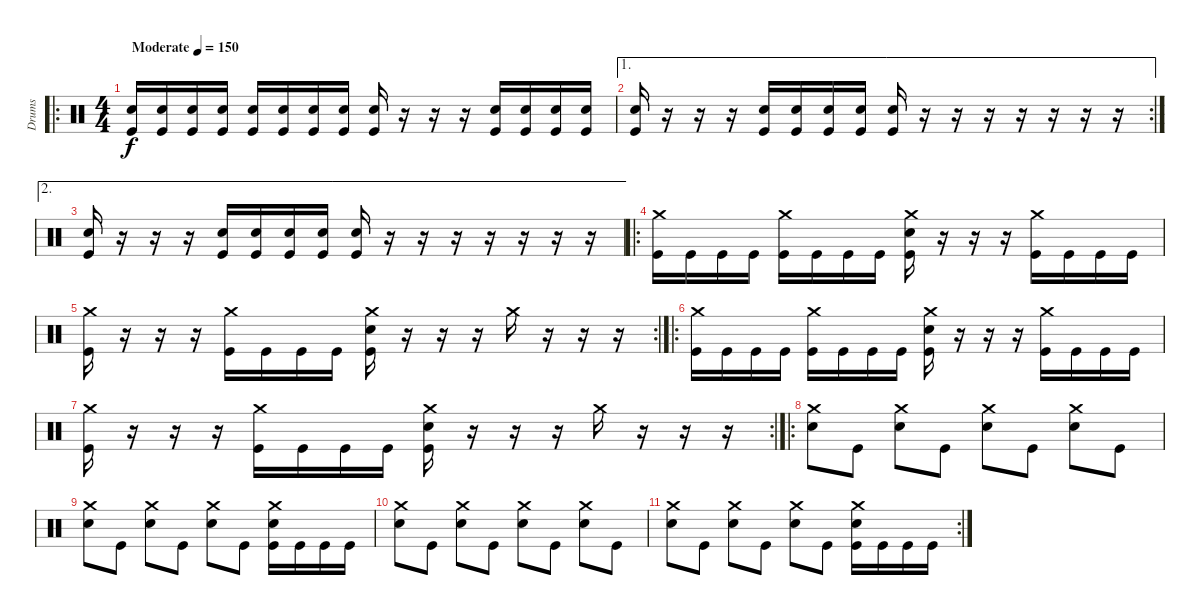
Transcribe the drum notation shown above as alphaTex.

\track ("Drums" "Drums") {instrument percussion}
\staff {score}
\articulation defaults
\ro
\ts (4 4)
\tempo (150 "Moderate")
\clef neutral
\ks c
("Snare (hit) 2" "Kick (hit)").16{dy f} ("Snare (hit) 2" "Kick (hit)").16 ("Snare (hit) 2" "Kick (hit)").16 ("Snare (hit) 2" "Kick (hit)").16 ("Snare (hit) 2" "Kick (hit)").16 ("Snare (hit) 2" "Kick (hit)").16 ("Snare (hit) 2" "Kick (hit)").16 ("Snare (hit) 2" "Kick (hit)").16 ("Snare (hit) 2" "Kick (hit)").16 r.16 r.16 r.16 ("Snare (hit) 2" "Kick (hit)").16 ("Snare (hit) 2" "Kick (hit)").16 ("Snare (hit) 2" "Kick (hit)").16 ("Snare (hit) 2" "Kick (hit)").16 |
\ae 1
\rc 2
("Snare (hit) 2" "Kick (hit)").16 r.16 r.16 r.16 ("Snare (hit) 2" "Kick (hit)").16 ("Snare (hit) 2" "Kick (hit)").16 ("Snare (hit) 2" "Kick (hit)").16 ("Snare (hit) 2" "Kick (hit)").16 ("Snare (hit) 2" "Kick (hit)").16 r.16 r.16 r.16 r.16 r.16 r.16 r.16 |
\ae 2
("Snare (hit) 2" "Kick (hit)").16 r.16 r.16 r.16 ("Snare (hit) 2" "Kick (hit)").16 ("Snare (hit) 2" "Kick (hit)").16 ("Snare (hit) 2" "Kick (hit)").16 ("Snare (hit) 2" "Kick (hit)").16 ("Snare (hit) 2" "Kick (hit)").16 r.16 r.16 r.16 r.16 r.16 r.16 r.16 |
\ro
("Crash medium (hit)" "Kick (hit)").16 "Kick (hit)".16 "Kick (hit)".16 "Kick (hit)".16 ("Crash medium (hit)" "Kick (hit)").16 "Kick (hit)".16 "Kick (hit)".16 "Kick (hit)".16 ("Crash medium (hit)" "Snare (hit) 2" "Kick (hit)").16 r.16 r.16 r.16 ("Crash medium (hit)" "Kick (hit)").16 "Kick (hit)".16 "Kick (hit)".16 "Kick (hit)".16 |
\rc 2
("Crash medium (hit)" "Kick (hit)").16 r.16 r.16 r.16 ("Crash medium (hit)" "Kick (hit)").16 "Kick (hit)".16 "Kick (hit)".16 "Kick (hit)".16 ("Crash medium (hit)" "Snare (hit) 2" "Kick (hit)").16 r.16 r.16 r.16 "Crash medium (hit)".16 r.16 r.16 r.16 |
\ro
("Crash medium (hit)" "Kick (hit)").16 "Kick (hit)".16 "Kick (hit)".16 "Kick (hit)".16 ("Crash medium (hit)" "Kick (hit)").16 "Kick (hit)".16 "Kick (hit)".16 "Kick (hit)".16 ("Crash medium (hit)" "Snare (hit) 2" "Kick (hit)").16 r.16 r.16 r.16 ("Crash medium (hit)" "Kick (hit)").16 "Kick (hit)".16 "Kick (hit)".16 "Kick (hit)".16 |
\rc 2
("Crash medium (hit)" "Kick (hit)").16 r.16 r.16 r.16 ("Crash medium (hit)" "Kick (hit)").16 "Kick (hit)".16 "Kick (hit)".16 "Kick (hit)".16 ("Crash medium (hit)" "Snare (hit) 2" "Kick (hit)").16 r.16 r.16 r.16 "Crash medium (hit)".16 r.16 r.16 r.16 |
\ro
("Crash medium (hit)" "Snare (hit) 2").8 "Kick (hit)".8 ("Crash medium (hit)" "Snare (hit) 2").8 "Kick (hit)".8 ("Crash medium (hit)" "Snare (hit) 2").8 "Kick (hit)".8 ("Crash medium (hit)" "Snare (hit) 2").8 "Kick (hit)".8 |
("Crash medium (hit)" "Snare (hit) 2").8 "Kick (hit)".8 ("Crash medium (hit)" "Snare (hit) 2").8 "Kick (hit)".8 ("Crash medium (hit)" "Snare (hit) 2").8 "Kick (hit)".8 ("Crash medium (hit)" "Snare (hit) 2" "Kick (hit)").16 "Kick (hit)".16 "Kick (hit)".16 "Kick (hit)".16 |
("Crash medium (hit)" "Snare (hit) 2").8 "Kick (hit)".8 ("Crash medium (hit)" "Snare (hit) 2").8 "Kick (hit)".8 ("Crash medium (hit)" "Snare (hit) 2").8 "Kick (hit)".8 ("Crash medium (hit)" "Snare (hit) 2").8 "Kick (hit)".8 |
\rc 2
("Crash medium (hit)" "Snare (hit) 2").8 "Kick (hit)".8 ("Crash medium (hit)" "Snare (hit) 2").8 "Kick (hit)".8 ("Crash medium (hit)" "Snare (hit) 2").8 "Kick (hit)".8 ("Crash medium (hit)" "Snare (hit) 2" "Kick (hit)").16 "Kick (hit)".16 "Kick (hit)".16 "Kick (hit)".16
